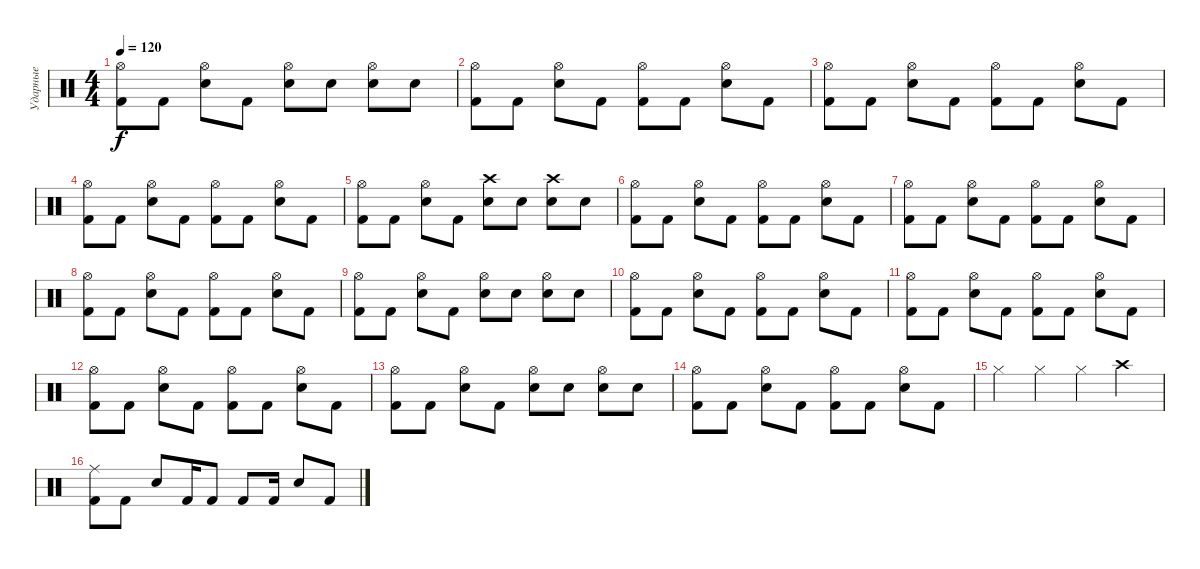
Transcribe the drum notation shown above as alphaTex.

\track ("Ударные" "Ударные") {instrument percussion}
\staff {score}
\articulation defaults
\ts (4 4)
\tempo 120
\clef neutral
\ks c
("Hi-Hat (open)" "Kick (hit) 2").8{dy f} "Kick (hit) 2".8 ("Hi-Hat (open)" "Snare (hit) 2").8 "Kick (hit) 2".8 ("Hi-Hat (open)" "Snare (hit) 2").8 "Snare (hit) 2".8 ("Hi-Hat (open)" "Snare (hit) 2").8 "Snare (hit) 2".8 |
("Hi-Hat (open)" "Kick (hit) 2").8 "Kick (hit) 2".8 ("Hi-Hat (open)" "Snare (hit) 2").8 "Kick (hit) 2".8 ("Hi-Hat (open)" "Kick (hit) 2").8 "Kick (hit) 2".8 ("Hi-Hat (open)" "Snare (hit) 2").8 "Kick (hit) 2".8 |
("Hi-Hat (open)" "Kick (hit) 2").8 "Kick (hit) 2".8 ("Hi-Hat (open)" "Snare (hit) 2").8 "Kick (hit) 2".8 ("Hi-Hat (open)" "Kick (hit) 2").8 "Kick (hit) 2".8 ("Hi-Hat (open)" "Snare (hit) 2").8 "Kick (hit) 2".8 |
("Hi-Hat (open)" "Kick (hit) 2").8 "Kick (hit) 2".8 ("Hi-Hat (open)" "Snare (hit) 2").8 "Kick (hit) 2".8 ("Hi-Hat (open)" "Kick (hit) 2").8 "Kick (hit) 2".8 ("Hi-Hat (open)" "Snare (hit) 2").8 "Kick (hit) 2".8 |
("Hi-Hat (open)" "Kick (hit) 2").8 "Kick (hit) 2".8 ("Hi-Hat (open)" "Snare (hit) 2").8 "Kick (hit) 2".8 ("Crash high (hit)" "Snare (hit) 2").8 "Snare (hit) 2".8 ("Crash high (hit)" "Snare (hit) 2").8 "Snare (hit) 2".8 |
("Hi-Hat (open)" "Kick (hit) 2").8 "Kick (hit) 2".8 ("Hi-Hat (open)" "Snare (hit) 2").8 "Kick (hit) 2".8 ("Hi-Hat (open)" "Kick (hit) 2").8 "Kick (hit) 2".8 ("Hi-Hat (open)" "Snare (hit) 2").8 "Kick (hit) 2".8 |
("Hi-Hat (open)" "Kick (hit) 2").8 "Kick (hit) 2".8 ("Hi-Hat (open)" "Snare (hit) 2").8 "Kick (hit) 2".8 ("Hi-Hat (open)" "Kick (hit) 2").8 "Kick (hit) 2".8 ("Hi-Hat (open)" "Snare (hit) 2").8 "Kick (hit) 2".8 |
("Hi-Hat (open)" "Kick (hit) 2").8 "Kick (hit) 2".8 ("Hi-Hat (open)" "Snare (hit) 2").8 "Kick (hit) 2".8 ("Hi-Hat (open)" "Kick (hit) 2").8 "Kick (hit) 2".8 ("Hi-Hat (open)" "Snare (hit) 2").8 "Kick (hit) 2".8 |
("Hi-Hat (open)" "Kick (hit) 2").8 "Kick (hit) 2".8 ("Hi-Hat (open)" "Snare (hit) 2").8 "Kick (hit) 2".8 ("Hi-Hat (open)" "Snare (hit) 2").8 "Snare (hit) 2".8 ("Hi-Hat (open)" "Snare (hit) 2").8 "Snare (hit) 2".8 |
("Hi-Hat (open)" "Kick (hit) 2").8 "Kick (hit) 2".8 ("Hi-Hat (open)" "Snare (hit) 2").8 "Kick (hit) 2".8 ("Hi-Hat (open)" "Kick (hit) 2").8 "Kick (hit) 2".8 ("Hi-Hat (open)" "Snare (hit) 2").8 "Kick (hit) 2".8 |
("Hi-Hat (open)" "Kick (hit) 2").8 "Kick (hit) 2".8 ("Hi-Hat (open)" "Snare (hit) 2").8 "Kick (hit) 2".8 ("Hi-Hat (open)" "Kick (hit) 2").8 "Kick (hit) 2".8 ("Hi-Hat (open)" "Snare (hit) 2").8 "Kick (hit) 2".8 |
("Hi-Hat (open)" "Kick (hit) 2").8 "Kick (hit) 2".8 ("Hi-Hat (open)" "Snare (hit) 2").8 "Kick (hit) 2".8 ("Hi-Hat (open)" "Kick (hit) 2").8 "Kick (hit) 2".8 ("Hi-Hat (open)" "Snare (hit) 2").8 "Kick (hit) 2".8 |
("Hi-Hat (open)" "Kick (hit) 2").8 "Kick (hit) 2".8 ("Hi-Hat (open)" "Snare (hit) 2").8 "Kick (hit) 2".8 ("Hi-Hat (open)" "Snare (hit) 2").8 "Snare (hit) 2".8 ("Hi-Hat (open)" "Snare (hit) 2").8 "Snare (hit) 2".8 |
("Hi-Hat (open)" "Kick (hit) 2").8 "Kick (hit) 2".8 ("Hi-Hat (open)" "Snare (hit) 2").8 "Kick (hit) 2".8 ("Hi-Hat (open)" "Kick (hit) 2").8 "Kick (hit) 2".8 ("Hi-Hat (open)" "Snare (hit) 2").8 "Kick (hit) 2".8 |
"Hi-Hat (closed)".4 "Hi-Hat (closed)".4 "Hi-Hat (closed)".4 "Crash high (hit)".4 |
("Ride (middle)" "Kick (hit) 2").8 "Kick (hit) 2".8 "Snare (hit) 2".8 "Kick (hit) 2".16 "Kick (hit) 2".8 "Kick (hit) 2".8 "Kick (hit) 2".16 "Snare (hit) 2".8 "Kick (hit) 2".8
